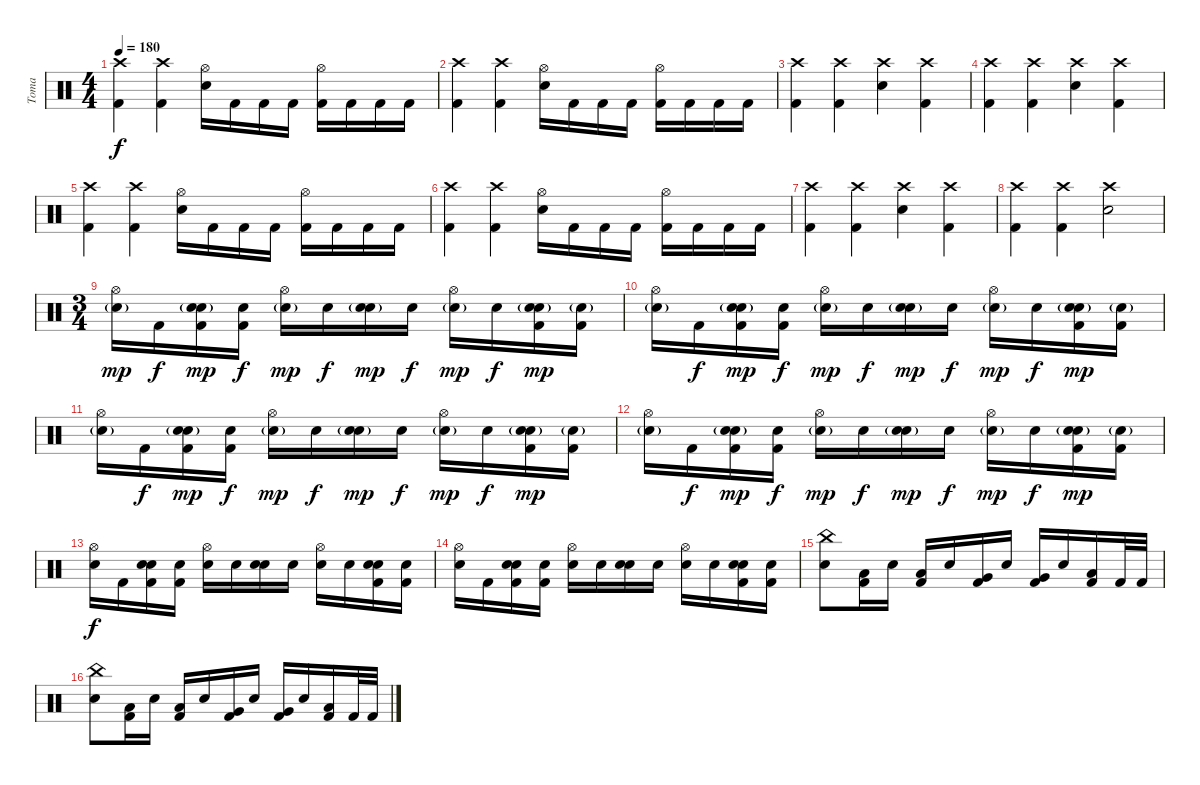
\track ("Toma" "Toma") {instrument percussion}
\staff {score}
\articulation defaults
\ts (4 4)
\tempo 180
\clef neutral
\ks c
("Crash high (hit)" "Kick (hit) 2").4{dy f} ("Crash high (hit)" "Kick (hit) 2").4 ("Hi-Hat (open)" "Electric Snare (hit)").16 "Kick (hit) 2".16 "Kick (hit) 2".16 "Kick (hit) 2".16 ("Hi-Hat (open)" "Kick (hit) 2").16 "Kick (hit) 2".16 "Kick (hit) 2".16 "Kick (hit) 2".16 |
("Crash high (hit)" "Kick (hit) 2").4 ("Crash high (hit)" "Kick (hit) 2").4 ("Hi-Hat (open)" "Electric Snare (hit)").16 "Kick (hit) 2".16 "Kick (hit) 2".16 "Kick (hit) 2".16 ("Hi-Hat (open)" "Kick (hit) 2").16 "Kick (hit) 2".16 "Kick (hit) 2".16 "Kick (hit) 2".16 |
("Crash high (hit)" "Kick (hit) 2").4 ("Crash high (hit)" "Kick (hit) 2").4 ("Crash high (hit)" "Electric Snare (hit)").4 ("Crash high (hit)" "Kick (hit) 2").4 |
("Crash high (hit)" "Kick (hit) 2").4 ("Crash high (hit)" "Kick (hit) 2").4 ("Crash high (hit)" "Electric Snare (hit)").4 ("Crash high (hit)" "Kick (hit) 2").4 |
("Crash high (hit)" "Kick (hit) 2").4 ("Crash high (hit)" "Kick (hit) 2").4 ("Hi-Hat (open)" "Electric Snare (hit)").16 "Kick (hit) 2".16 "Kick (hit) 2".16 "Kick (hit) 2".16 ("Hi-Hat (open)" "Kick (hit) 2").16 "Kick (hit) 2".16 "Kick (hit) 2".16 "Kick (hit) 2".16 |
("Crash high (hit)" "Kick (hit) 2").4 ("Crash high (hit)" "Kick (hit) 2").4 ("Hi-Hat (open)" "Electric Snare (hit)").16 "Kick (hit) 2".16 "Kick (hit) 2".16 "Kick (hit) 2".16 ("Hi-Hat (open)" "Kick (hit) 2").16 "Kick (hit) 2".16 "Kick (hit) 2".16 "Kick (hit) 2".16 |
("Crash high (hit)" "Kick (hit) 2").4 ("Crash high (hit)" "Kick (hit) 2").4 ("Crash high (hit)" "Electric Snare (hit)").4 ("Crash high (hit)" "Kick (hit) 2").4 |
("Crash high (hit)" "Kick (hit) 2").4 ("Crash high (hit)" "Kick (hit) 2").4 ("Crash high (hit)" "Electric Snare (hit)").2 |
\ts (3 4)
("Electric Snare (hit)"{g} "Hi-Hat (open)").16{dy mp} "Kick (hit) 2".16{dy f} ("Kick (hit) 2" "Electric Snare (hit)"{g} "Snare (hit)").16{dy mp} ("Kick (hit) 2" "Snare (hit)").16{dy f} ("Electric Snare (hit)"{g} "Hi-Hat (open)").16{dy mp} "Snare (hit)".16{dy f} ("Electric Snare (hit)"{g} "Snare (hit)").16{dy mp} "Snare (hit)".16{dy f} ("Electric Snare (hit)"{g} "Hi-Hat (open)").16{dy mp} "Snare (hit)".16{dy f} ("Kick (hit) 2" "Electric Snare (hit)"{g} "Snare (hit)").16{dy mp} ("Kick (hit) 2" "Snare (hit)"{g}).16 |
("Electric Snare (hit)"{g} "Hi-Hat (open)").16 "Kick (hit) 2".16{dy f} ("Kick (hit) 2" "Electric Snare (hit)"{g} "Snare (hit)").16{dy mp} ("Kick (hit) 2" "Snare (hit)").16{dy f} ("Electric Snare (hit)"{g} "Hi-Hat (open)").16{dy mp} "Snare (hit)".16{dy f} ("Electric Snare (hit)"{g} "Snare (hit)").16{dy mp} "Snare (hit)".16{dy f} ("Electric Snare (hit)"{g} "Hi-Hat (open)").16{dy mp} "Snare (hit)".16{dy f} ("Kick (hit) 2" "Electric Snare (hit)"{g} "Snare (hit)").16{dy mp} ("Kick (hit) 2" "Snare (hit)"{g}).16 |
("Electric Snare (hit)"{g} "Hi-Hat (open)").16 "Kick (hit) 2".16{dy f} ("Kick (hit) 2" "Electric Snare (hit)"{g} "Snare (hit)").16{dy mp} ("Kick (hit) 2" "Snare (hit)").16{dy f} ("Electric Snare (hit)"{g} "Hi-Hat (open)").16{dy mp} "Snare (hit)".16{dy f} ("Electric Snare (hit)"{g} "Snare (hit)").16{dy mp} "Snare (hit)".16{dy f} ("Electric Snare (hit)"{g} "Hi-Hat (open)").16{dy mp} "Snare (hit)".16{dy f} ("Kick (hit) 2" "Electric Snare (hit)"{g} "Snare (hit)").16{dy mp} ("Kick (hit) 2" "Snare (hit)"{g}).16 |
("Electric Snare (hit)"{g} "Hi-Hat (open)").16 "Kick (hit) 2".16{dy f} ("Kick (hit) 2" "Electric Snare (hit)"{g} "Snare (hit)").16{dy mp} ("Kick (hit) 2" "Snare (hit)").16{dy f} ("Electric Snare (hit)"{g} "Hi-Hat (open)").16{dy mp} "Snare (hit)".16{dy f} ("Electric Snare (hit)"{g} "Snare (hit)").16{dy mp} "Snare (hit)".16{dy f} ("Electric Snare (hit)"{g} "Hi-Hat (open)").16{dy mp} "Snare (hit)".16{dy f} ("Kick (hit) 2" "Electric Snare (hit)"{g} "Snare (hit)").16{dy mp} ("Kick (hit) 2" "Snare (hit)"{g}).16 |
("Electric Snare (hit)" "Hi-Hat (open)").16{dy f} "Kick (hit) 2".16 ("Kick (hit) 2" "Electric Snare (hit)" "Snare (hit)").16 ("Kick (hit) 2" "Snare (hit)").16 ("Electric Snare (hit)" "Hi-Hat (open)").16 "Snare (hit)".16 ("Electric Snare (hit)" "Snare (hit)").16 "Snare (hit)".16 ("Electric Snare (hit)" "Hi-Hat (open)").16 "Snare (hit)".16 ("Kick (hit) 2" "Electric Snare (hit)" "Snare (hit)").16 ("Kick (hit) 2" "Snare (hit)").16 |
("Electric Snare (hit)" "Hi-Hat (open)").16 "Kick (hit) 2".16 ("Kick (hit) 2" "Electric Snare (hit)" "Snare (hit)").16 ("Kick (hit) 2" "Snare (hit)").16 ("Electric Snare (hit)" "Hi-Hat (open)").16 "Snare (hit)".16 ("Electric Snare (hit)" "Snare (hit)").16 "Snare (hit)".16 ("Electric Snare (hit)" "Hi-Hat (open)").16 "Snare (hit)".16 ("Kick (hit) 2" "Electric Snare (hit)" "Snare (hit)").16 ("Kick (hit) 2" "Snare (hit)").16 |
("China (hit)" "Electric Snare (hit)").8 ("Low Tom (hit)" "Kick (hit) 2").16 "Snare (hit)".16 ("Low Tom (hit)" "Kick (hit) 2").16 "Snare (hit)".16 ("Very Low Tom (hit)" "Kick (hit) 2").16 "Snare (hit)".16 ("Very Low Tom (hit)" "Kick (hit) 2").16 "Snare (hit)".16 ("Low Floor Tom (hit)" "Kick (hit) 2").16 "Kick (hit) 2".32 "Kick (hit) 2".32 |
("China (hit)" "Electric Snare (hit)").8 ("Low Tom (hit)" "Kick (hit) 2").16 "Snare (hit)".16 ("Low Tom (hit)" "Kick (hit) 2").16 "Snare (hit)".16 ("Very Low Tom (hit)" "Kick (hit) 2").16 "Snare (hit)".16 ("Very Low Tom (hit)" "Kick (hit) 2").16 "Snare (hit)".16 ("Low Floor Tom (hit)" "Kick (hit) 2").16 "Kick (hit) 2".32 "Kick (hit) 2".32
